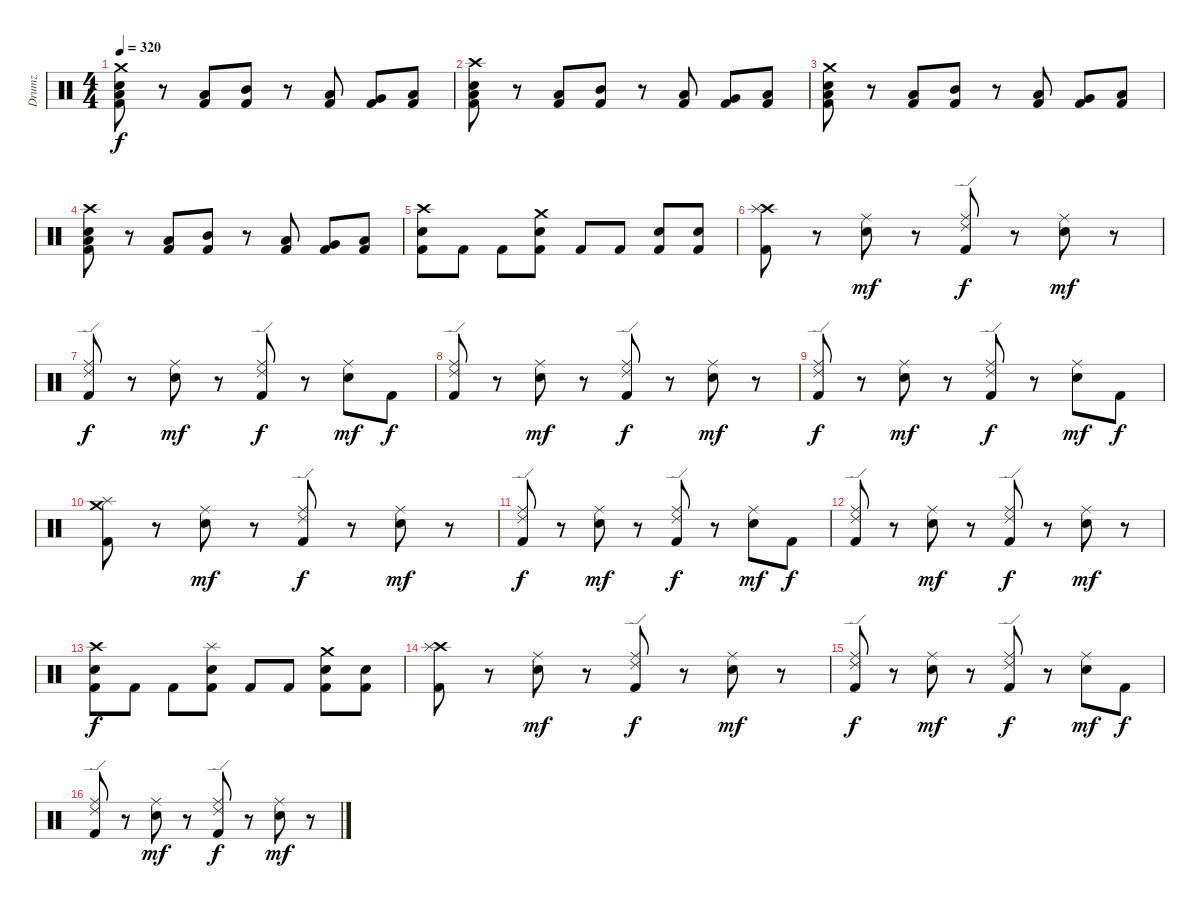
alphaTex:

\track ("Drumz" "Drumz") {instrument percussion}
\staff {score}
\articulation defaults
\ts (4 4)
\tempo 320
\clef neutral
\ks c
("Crash medium (hit)" "Snare (hit) 2" "Kick (hit) 2" "Low Tom (hit)").8{dy f} r.8 ("Kick (hit) 2" "Low Tom (hit)").8 ("Kick (hit) 2" "Mid Tom (hit)").8 r.8 ("Kick (hit) 2" "Low Tom (hit)").8 ("Kick (hit) 2" "Very Low Tom (hit)").8 ("Low Floor Tom (hit)" "Kick (hit) 2").8 |
("Crash high (hit)" "Snare (hit) 2" "Kick (hit) 2" "Low Tom (hit)").8 r.8 ("Kick (hit) 2" "Low Tom (hit)").8 ("Kick (hit) 2" "Mid Tom (hit)").8 r.8 ("Kick (hit) 2" "Low Tom (hit)").8 ("Kick (hit) 2" "Very Low Tom (hit)").8 ("Low Floor Tom (hit)" "Kick (hit) 2").8 |
("Crash medium (hit)" "Snare (hit) 2" "Kick (hit) 2" "Low Tom (hit)").8 r.8 ("Kick (hit) 2" "Low Tom (hit)").8 ("Kick (hit) 2" "Mid Tom (hit)").8 r.8 ("Kick (hit) 2" "Low Tom (hit)").8 ("Kick (hit) 2" "Very Low Tom (hit)").8 ("Low Floor Tom (hit)" "Kick (hit) 2").8 |
("Crash high (hit)" "Snare (hit) 2" "Kick (hit) 2" "Low Tom (hit)").8 r.8 ("Kick (hit) 2" "Low Tom (hit)").8 ("Kick (hit) 2" "Mid Tom (hit)").8 r.8 ("Kick (hit) 2" "Low Tom (hit)").8 ("Kick (hit) 2" "Very Low Tom (hit)").8 ("Low Floor Tom (hit)" "Kick (hit) 2").8 |
("Crash high (hit)" "Snare (hit) 2" "Kick (hit) 2").8 "Kick (hit) 2".8 "Kick (hit) 2".8 ("Crash medium (hit)" "Snare (hit) 2" "Kick (hit) 2").8 "Kick (hit) 2".8 "Kick (hit) 2".8 ("Snare (hit) 2" "Kick (hit) 2").8 ("Snare (hit) 2" "Kick (hit) 2").8 |
("Kick (hit) 2" "Crash high (hit)" "Splash (hit)").8 r.8 ("Snare (hit) 2" "Ride (middle)").8{dy mf} r.8 ("Ride (edge) 2" "Kick (hit) 2" "Ride (middle)").8{dy f} r.8 ("Snare (hit) 2" "Ride (middle)").8{dy mf} r.8 |
("Kick (hit) 2" "Ride (middle)" "Ride (edge) 2").8{dy f} r.8 ("Snare (hit) 2" "Ride (middle)").8{dy mf} r.8 ("Kick (hit) 2" "Ride (middle)" "Ride (edge) 2").8{dy f} r.8 ("Snare (hit) 2" "Ride (middle)").8{dy mf} "Kick (hit) 2".8{dy f} |
("Kick (hit) 2" "Ride (middle)" "Ride (edge) 2").8 r.8 ("Snare (hit) 2" "Ride (middle)").8{dy mf} r.8 ("Ride (edge) 2" "Kick (hit) 2" "Ride (middle)").8{dy f} r.8 ("Snare (hit) 2" "Ride (middle)").8{dy mf} r.8 |
("Kick (hit) 2" "Ride (middle)" "Ride (edge) 2").8{dy f} r.8 ("Snare (hit) 2" "Ride (middle)").8{dy mf} r.8 ("Kick (hit) 2" "Ride (middle)" "Ride (edge) 2").8{dy f} r.8 ("Snare (hit) 2" "Ride (middle)").8{dy mf} "Kick (hit) 2".8{dy f} |
("Crash medium (hit)" "Kick (hit) 2" "Splash (hit)").8 r.8 ("Snare (hit) 2" "Ride (middle)").8{dy mf} r.8 ("Ride (edge) 2" "Kick (hit) 2" "Ride (middle)").8{dy f} r.8 ("Snare (hit) 2" "Ride (middle)").8{dy mf} r.8 |
("Kick (hit) 2" "Ride (middle)" "Ride (edge) 2").8{dy f} r.8 ("Snare (hit) 2" "Ride (middle)").8{dy mf} r.8 ("Kick (hit) 2" "Ride (middle)" "Ride (edge) 2").8{dy f} r.8 ("Snare (hit) 2" "Ride (middle)").8{dy mf} "Kick (hit) 2".8{dy f} |
("Kick (hit) 2" "Ride (middle)" "Ride (edge) 2").8 r.8 ("Snare (hit) 2" "Ride (middle)").8{dy mf} r.8 ("Kick (hit) 2" "Ride (middle)" "Ride (edge) 2").8{dy f} r.8 ("Snare (hit) 2" "Ride (middle)").8{dy mf} r.8 |
("Snare (hit) 2" "Kick (hit) 2" "Crash high (hit)").8{dy f} "Kick (hit) 2".8 "Kick (hit) 2".8 ("Kick (hit) 2" "Snare (hit) 2" "Splash (hit)").8 "Kick (hit) 2".8 "Kick (hit) 2".8 ("Snare (hit) 2" "Kick (hit) 2" "Crash medium (hit)").8 ("Snare (hit) 2" "Kick (hit) 2").8 |
("Kick (hit) 2" "Crash high (hit)" "Splash (hit)").8 r.8 ("Snare (hit) 2" "Ride (middle)").8{dy mf} r.8 ("Ride (edge) 2" "Kick (hit) 2" "Ride (middle)").8{dy f} r.8 ("Snare (hit) 2" "Ride (middle)").8{dy mf} r.8 |
("Kick (hit) 2" "Ride (middle)" "Ride (edge) 2").8{dy f} r.8 ("Snare (hit) 2" "Ride (middle)").8{dy mf} r.8 ("Kick (hit) 2" "Ride (middle)" "Ride (edge) 2").8{dy f} r.8 ("Snare (hit) 2" "Ride (middle)").8{dy mf} "Kick (hit) 2".8{dy f} |
("Kick (hit) 2" "Ride (middle)" "Ride (edge) 2").8 r.8 ("Snare (hit) 2" "Ride (middle)").8{dy mf} r.8 ("Ride (edge) 2" "Kick (hit) 2" "Ride (middle)").8{dy f} r.8 ("Snare (hit) 2" "Ride (middle)").8{dy mf} r.8
